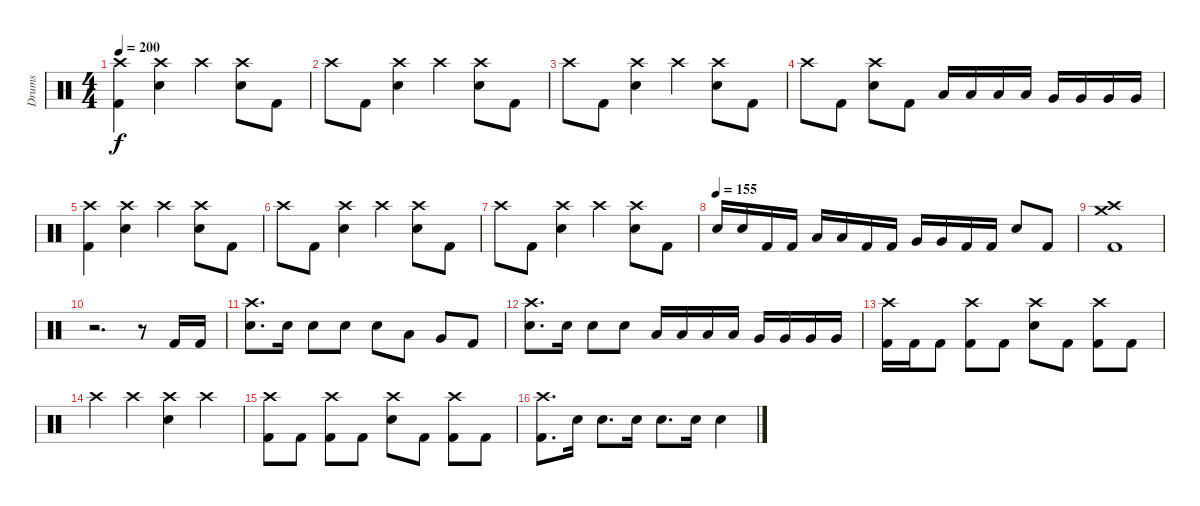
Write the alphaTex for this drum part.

\track ("Drums" "Drums") {instrument percussion}
\staff {score}
\articulation defaults
\ts (4 4)
\tempo 200
\clef neutral
\ks c
("Crash high (hit)" "Kick (hit) 2").4{dy f} ("Crash high (hit)" "Electric Snare (hit)").4 "Crash high (hit)".4 ("Crash high (hit)" "Electric Snare (hit)").8 "Kick (hit) 2".8 |
"Crash high (hit)".8 "Kick (hit) 2".8 ("Crash high (hit)" "Electric Snare (hit)").4 "Crash high (hit)".4 ("Crash high (hit)" "Electric Snare (hit)").8 "Kick (hit) 2".8 |
"Crash high (hit)".8 "Kick (hit) 2".8 ("Crash high (hit)" "Electric Snare (hit)").4 "Crash high (hit)".4 ("Crash high (hit)" "Electric Snare (hit)").8 "Kick (hit) 2".8 |
"Crash high (hit)".8 "Kick (hit) 2".8 ("Crash high (hit)" "Electric Snare (hit)").8 "Kick (hit) 2".8 "Low Tom (hit)".16 "Low Tom (hit)".16 "Low Tom (hit)".16 "Low Tom (hit)".16 "Very Low Tom (hit)".16 "Very Low Tom (hit)".16 "Very Low Tom (hit)".16 "Very Low Tom (hit)".16 |
("Crash high (hit)" "Kick (hit) 2").4 ("Crash high (hit)" "Electric Snare (hit)").4 "Crash high (hit)".4 ("Crash high (hit)" "Electric Snare (hit)").8 "Kick (hit) 2".8 |
"Crash high (hit)".8 "Kick (hit) 2".8 ("Crash high (hit)" "Electric Snare (hit)").4 "Crash high (hit)".4 ("Crash high (hit)" "Electric Snare (hit)").8 "Kick (hit) 2".8 |
"Crash high (hit)".8 "Kick (hit) 2".8 ("Crash high (hit)" "Electric Snare (hit)").4 "Crash high (hit)".4 ("Crash high (hit)" "Electric Snare (hit)").8 "Kick (hit) 2".8 |
\tempo (155)
"Electric Snare (hit)".16 "Electric Snare (hit)".16 "Kick (hit) 2".16 "Kick (hit) 2".16 "Low Tom (hit)".16 "Low Tom (hit)".16 "Kick (hit) 2".16 "Kick (hit) 2".16 "Very Low Tom (hit)".16 "Very Low Tom (hit)".16 "Kick (hit) 2".16 "Kick (hit) 2".16 "Electric Snare (hit)".8 "Kick (hit) 2".8 |
("Crash high (hit)" "Crash medium (hit)" "Kick (hit) 2").1 |
r.2{d} r.8 "Kick (hit) 2".16 "Kick (hit) 2".16 |
("Crash high (hit)" "Electric Snare (hit)").8{d} "Electric Snare (hit)".16 "Electric Snare (hit)".8 "Electric Snare (hit)".8 "Electric Snare (hit)".8 "Low Tom (hit)".8 "Very Low Tom (hit)".8 "Kick (hit) 2".8 |
("Crash high (hit)" "Electric Snare (hit)").8{d} "Electric Snare (hit)".16 "Electric Snare (hit)".8 "Electric Snare (hit)".8 "Low Tom (hit)".16 "Low Tom (hit)".16 "Low Tom (hit)".16 "Low Tom (hit)".16 "Very Low Tom (hit)".16 "Very Low Tom (hit)".16 "Very Low Tom (hit)".16 "Very Low Tom (hit)".16 |
("Crash high (hit)" "Kick (hit) 2").16 "Kick (hit) 2".16 "Kick (hit) 2".8 ("Crash high (hit)" "Kick (hit) 2").8 "Kick (hit) 2".8 ("Crash high (hit)" "Electric Snare (hit)").8 "Kick (hit) 2".8 ("Crash high (hit)" "Kick (hit) 2").8 "Kick (hit) 2".8 |
"Crash high (hit)".4 "Crash high (hit)".4 ("Crash high (hit)" "Electric Snare (hit)").4 "Crash high (hit)".4 |
("Crash high (hit)" "Kick (hit) 2").8 "Kick (hit) 2".8 ("Crash high (hit)" "Kick (hit) 2").8 "Kick (hit) 2".8 ("Crash high (hit)" "Electric Snare (hit)").8 "Kick (hit) 2".8 ("Crash high (hit)" "Kick (hit) 2").8 "Kick (hit) 2".8 |
("Crash high (hit)" "Kick (hit) 2").8{d} "Electric Snare (hit)".16 "Electric Snare (hit)".8{d} "Electric Snare (hit)".16 "Electric Snare (hit)".8{d} "Electric Snare (hit)".16 "Electric Snare (hit)".4
